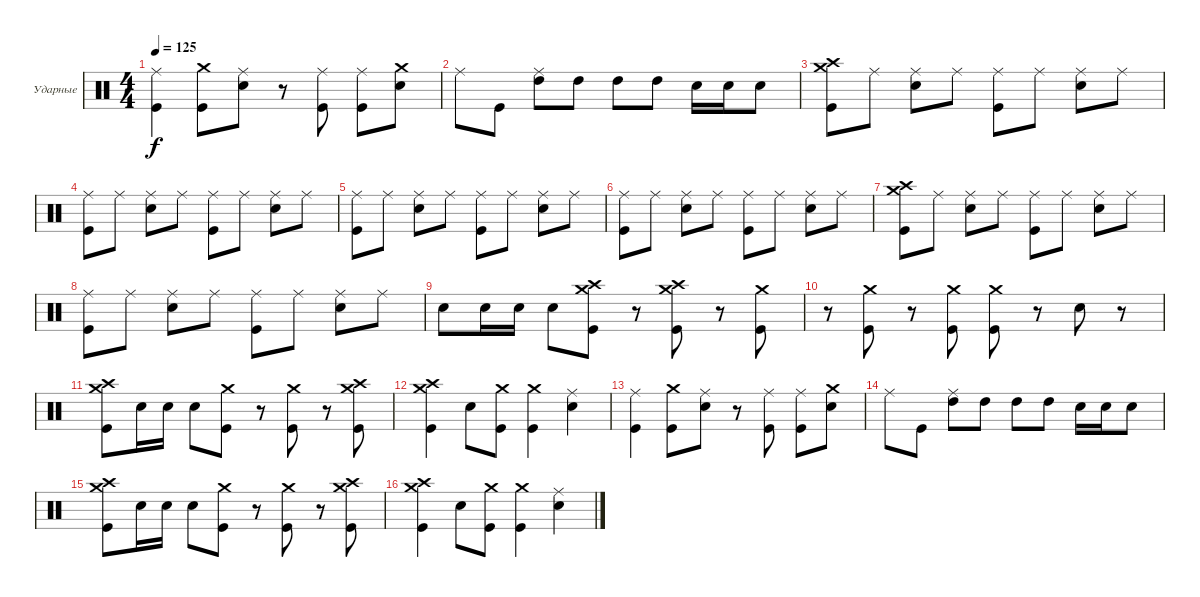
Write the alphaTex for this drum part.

\bracketExtendMode groupsimilarinstruments
\firstSystemTrackNameOrientation horizontal
\otherSystemsTrackNameOrientation horizontal
\track ("Максим Удалов" "Ударные") {instrument percussion}
\staff {score}
\articulation defaults
\ts (4 4)
\tempo 125
\clef neutral
\ks c
("Kick (hit)" "Ride (middle)").4{dy f} ("Kick (hit)" "Crash medium (hit)").8 ("Snare (hit) 2" "Ride (middle)").8 r.8 ("Kick (hit)" "Ride (middle)").8 ("Kick (hit)" "Ride (middle)").8 ("Snare (hit) 2" "Crash medium (hit)").8 |
"Ride (middle)".8 "Kick (hit)".8 ("High Tom (hit)" "Ride (middle)").8 "High Tom (hit)".8 "High Tom (hit)".8 "High Tom (hit)".8 "Snare (hit) 2".16 "Snare (hit) 2".16 "Snare (hit) 2".8 |
("Kick (hit)" "Crash medium (hit)" "Crash high (hit)").8 "Ride (middle)".8 ("Snare (hit) 2" "Ride (middle)").8 "Ride (middle)".8 ("Kick (hit)" "Ride (middle)").8 "Ride (middle)".8 ("Snare (hit) 2" "Ride (middle)").8 "Ride (middle)".8 |
("Kick (hit)" "Ride (middle)").8 "Ride (middle)".8 ("Snare (hit) 2" "Ride (middle)").8 "Ride (middle)".8 ("Kick (hit)" "Ride (middle)").8 "Ride (middle)".8 ("Snare (hit) 2" "Ride (middle)").8 "Ride (middle)".8 |
("Kick (hit)" "Ride (middle)").8 "Ride (middle)".8 ("Snare (hit) 2" "Ride (middle)").8 "Ride (middle)".8 ("Kick (hit)" "Ride (middle)").8 "Ride (middle)".8 ("Snare (hit) 2" "Ride (middle)").8 "Ride (middle)".8 |
("Kick (hit)" "Ride (middle)").8 "Ride (middle)".8 ("Snare (hit) 2" "Ride (middle)").8 "Ride (middle)".8 ("Kick (hit)" "Ride (middle)").8 "Ride (middle)".8 ("Snare (hit) 2" "Ride (middle)").8 "Ride (middle)".8 |
("Kick (hit)" "Crash medium (hit)" "Crash high (hit)").8 "Ride (middle)".8 ("Snare (hit) 2" "Ride (middle)").8 "Ride (middle)".8 ("Kick (hit)" "Ride (middle)").8 "Ride (middle)".8 ("Snare (hit) 2" "Ride (middle)").8 "Ride (middle)".8 |
("Kick (hit)" "Ride (middle)").8 "Ride (middle)".8 ("Snare (hit) 2" "Ride (middle)").8 "Ride (middle)".8 ("Kick (hit)" "Ride (middle)").8 "Ride (middle)".8 ("Snare (hit) 2" "Ride (middle)").8 "Ride (middle)".8 |
"Snare (hit) 2".8 "Snare (hit) 2".16 "Snare (hit) 2".16 "Snare (hit) 2".8 ("Kick (hit)" "Crash medium (hit)" "Crash high (hit)").8 r.8 ("Kick (hit)" "Crash medium (hit)" "Crash high (hit)").8 r.8 ("Kick (hit)" "Crash medium (hit)").8 |
r.8 ("Kick (hit)" "Crash medium (hit)").8 r.8 ("Kick (hit)" "Crash medium (hit)").8 ("Kick (hit)" "Crash medium (hit)").8 r.8 "Snare (hit) 2".8 r.8 |
("Kick (hit)" "Crash medium (hit)" "Crash high (hit)").8 "Snare (hit) 2".16 "Snare (hit) 2".16 "Snare (hit) 2".8 ("Kick (hit)" "Crash medium (hit)").8 r.8 ("Kick (hit)" "Crash medium (hit)").8 r.8 ("Kick (hit)" "Crash high (hit)" "Crash medium (hit)").8 |
("Kick (hit)" "Crash medium (hit)" "Crash high (hit)").4 "Snare (hit) 2".8 ("Kick (hit)" "Crash medium (hit)").8 ("Kick (hit)" "Crash medium (hit)").4 ("Snare (hit) 2" "Ride (middle)").4 |
("Kick (hit)" "Ride (middle)").4 ("Kick (hit)" "Crash medium (hit)").8 ("Snare (hit) 2" "Ride (middle)").8 r.8 ("Kick (hit)" "Ride (middle)").8 ("Kick (hit)" "Ride (middle)").8 ("Snare (hit) 2" "Crash medium (hit)").8 |
"Ride (middle)".8 "Kick (hit)".8 ("High Tom (hit)" "Ride (middle)").8 "High Tom (hit)".8 "High Tom (hit)".8 "High Tom (hit)".8 "Snare (hit) 2".16 "Snare (hit) 2".16 "Snare (hit) 2".8 |
("Kick (hit)" "Crash medium (hit)" "Crash high (hit)").8 "Snare (hit) 2".16 "Snare (hit) 2".16 "Snare (hit) 2".8 ("Kick (hit)" "Crash medium (hit)").8 r.8 ("Kick (hit)" "Crash medium (hit)").8 r.8 ("Kick (hit)" "Crash high (hit)" "Crash medium (hit)").8 |
("Kick (hit)" "Crash medium (hit)" "Crash high (hit)").4 "Snare (hit) 2".8 ("Kick (hit)" "Crash medium (hit)").8 ("Kick (hit)" "Crash medium (hit)").4 ("Snare (hit) 2" "Ride (middle)").4
